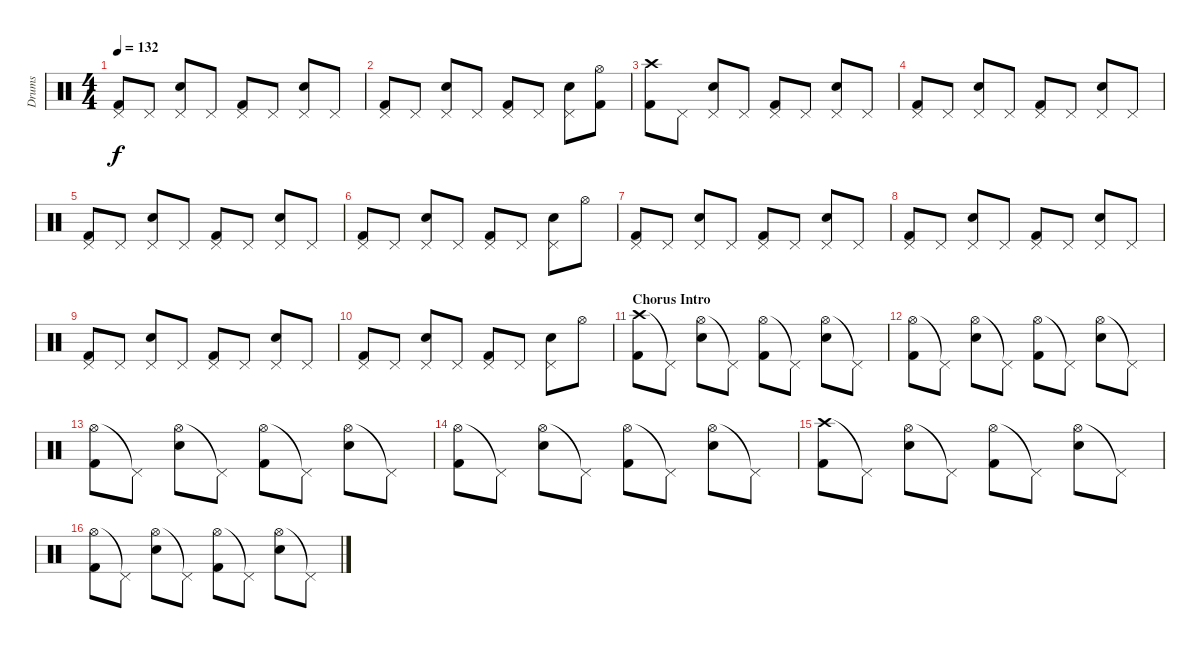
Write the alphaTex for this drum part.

\track ("Drums" "Drums") {instrument percussion}
\staff {score}
\articulation defaults
\ts (4 4)
\tempo 132
\clef neutral
\ks c
("Pedal Hi-Hat (hit)" "Kick (hit) 2").8{dy f} "Pedal Hi-Hat (hit)".8 ("Pedal Hi-Hat (hit)" "Snare (hit) 2").8 "Pedal Hi-Hat (hit)".8 ("Pedal Hi-Hat (hit)" "Kick (hit) 2").8 "Pedal Hi-Hat (hit)".8 ("Pedal Hi-Hat (hit)" "Snare (hit) 2").8 "Pedal Hi-Hat (hit)".8 |
("Pedal Hi-Hat (hit)" "Kick (hit) 2").8 "Pedal Hi-Hat (hit)".8 ("Pedal Hi-Hat (hit)" "Snare (hit) 2").8 "Pedal Hi-Hat (hit)".8 ("Pedal Hi-Hat (hit)" "Kick (hit) 2").8 "Pedal Hi-Hat (hit)".8 ("Pedal Hi-Hat (hit)" "Snare (hit) 2").8 ("Hi-Hat (open)" "Kick (hit) 2").8 |
("Crash high (hit)" "Kick (hit) 2").8 "Pedal Hi-Hat (hit)".8 ("Pedal Hi-Hat (hit)" "Snare (hit) 2").8 "Pedal Hi-Hat (hit)".8 ("Pedal Hi-Hat (hit)" "Kick (hit) 2").8 "Pedal Hi-Hat (hit)".8 ("Pedal Hi-Hat (hit)" "Snare (hit) 2").8 "Pedal Hi-Hat (hit)".8 |
("Pedal Hi-Hat (hit)" "Kick (hit) 2").8 "Pedal Hi-Hat (hit)".8 ("Pedal Hi-Hat (hit)" "Snare (hit) 2").8 "Pedal Hi-Hat (hit)".8 ("Pedal Hi-Hat (hit)" "Kick (hit) 2").8 "Pedal Hi-Hat (hit)".8 ("Pedal Hi-Hat (hit)" "Snare (hit) 2").8 "Pedal Hi-Hat (hit)".8 |
("Pedal Hi-Hat (hit)" "Kick (hit) 2").8 "Pedal Hi-Hat (hit)".8 ("Pedal Hi-Hat (hit)" "Snare (hit) 2").8 "Pedal Hi-Hat (hit)".8 ("Pedal Hi-Hat (hit)" "Kick (hit) 2").8 "Pedal Hi-Hat (hit)".8 ("Pedal Hi-Hat (hit)" "Snare (hit) 2").8 "Pedal Hi-Hat (hit)".8 |
("Pedal Hi-Hat (hit)" "Kick (hit) 2").8 "Pedal Hi-Hat (hit)".8 ("Pedal Hi-Hat (hit)" "Snare (hit) 2").8 "Pedal Hi-Hat (hit)".8 ("Pedal Hi-Hat (hit)" "Kick (hit) 2").8 "Pedal Hi-Hat (hit)".8 ("Pedal Hi-Hat (hit)" "Snare (hit) 2").8 "Hi-Hat (open)".8 |
("Pedal Hi-Hat (hit)" "Kick (hit) 2").8 "Pedal Hi-Hat (hit)".8 ("Pedal Hi-Hat (hit)" "Snare (hit) 2").8 "Pedal Hi-Hat (hit)".8 ("Pedal Hi-Hat (hit)" "Kick (hit) 2").8 "Pedal Hi-Hat (hit)".8 ("Pedal Hi-Hat (hit)" "Snare (hit) 2").8 "Pedal Hi-Hat (hit)".8 |
("Pedal Hi-Hat (hit)" "Kick (hit) 2").8 "Pedal Hi-Hat (hit)".8 ("Pedal Hi-Hat (hit)" "Snare (hit) 2").8 "Pedal Hi-Hat (hit)".8 ("Pedal Hi-Hat (hit)" "Kick (hit) 2").8 "Pedal Hi-Hat (hit)".8 ("Pedal Hi-Hat (hit)" "Snare (hit) 2").8 "Pedal Hi-Hat (hit)".8 |
("Pedal Hi-Hat (hit)" "Kick (hit) 2").8 "Pedal Hi-Hat (hit)".8 ("Pedal Hi-Hat (hit)" "Snare (hit) 2").8 "Pedal Hi-Hat (hit)".8 ("Pedal Hi-Hat (hit)" "Kick (hit) 2").8 "Pedal Hi-Hat (hit)".8 ("Pedal Hi-Hat (hit)" "Snare (hit) 2").8 "Pedal Hi-Hat (hit)".8 |
("Pedal Hi-Hat (hit)" "Kick (hit) 2").8 "Pedal Hi-Hat (hit)".8 ("Pedal Hi-Hat (hit)" "Snare (hit) 2").8 "Pedal Hi-Hat (hit)".8 ("Pedal Hi-Hat (hit)" "Kick (hit) 2").8 "Pedal Hi-Hat (hit)".8 ("Pedal Hi-Hat (hit)" "Snare (hit) 2").8 "Hi-Hat (open)".8 |
\section ("" "Chorus Intro")
("Crash high (hit)" "Kick (hit) 2").8 "Pedal Hi-Hat (hit)"{t}.8 ("Hi-Hat (open)" "Snare (hit) 2").8 "Pedal Hi-Hat (hit)"{t}.8 ("Hi-Hat (open)" "Kick (hit) 2").8 "Pedal Hi-Hat (hit)"{t}.8 ("Hi-Hat (open)" "Snare (hit) 2").8 "Pedal Hi-Hat (hit)"{t}.8 |
("Hi-Hat (open)" "Kick (hit) 2").8 "Pedal Hi-Hat (hit)"{t}.8 ("Hi-Hat (open)" "Snare (hit) 2").8 "Pedal Hi-Hat (hit)"{t}.8 ("Hi-Hat (open)" "Kick (hit) 2").8 "Pedal Hi-Hat (hit)"{t}.8 ("Hi-Hat (open)" "Snare (hit) 2").8 "Pedal Hi-Hat (hit)"{t}.8 |
("Hi-Hat (open)" "Kick (hit) 2").8 "Pedal Hi-Hat (hit)"{t}.8 ("Hi-Hat (open)" "Snare (hit) 2").8 "Pedal Hi-Hat (hit)"{t}.8 ("Hi-Hat (open)" "Kick (hit) 2").8 "Pedal Hi-Hat (hit)"{t}.8 ("Hi-Hat (open)" "Snare (hit) 2").8 "Pedal Hi-Hat (hit)"{t}.8 |
("Hi-Hat (open)" "Kick (hit) 2").8 "Pedal Hi-Hat (hit)"{t}.8 ("Hi-Hat (open)" "Snare (hit) 2").8 "Pedal Hi-Hat (hit)"{t}.8 ("Hi-Hat (open)" "Kick (hit) 2").8 "Pedal Hi-Hat (hit)"{t}.8 ("Hi-Hat (open)" "Snare (hit) 2").8 "Pedal Hi-Hat (hit)"{t}.8 |
("Crash high (hit)" "Kick (hit) 2").8 "Pedal Hi-Hat (hit)"{t}.8 ("Hi-Hat (open)" "Snare (hit) 2").8 "Pedal Hi-Hat (hit)"{t}.8 ("Hi-Hat (open)" "Kick (hit) 2").8 "Pedal Hi-Hat (hit)"{t}.8 ("Hi-Hat (open)" "Snare (hit) 2").8 "Pedal Hi-Hat (hit)"{t}.8 |
("Hi-Hat (open)" "Kick (hit) 2").8 "Pedal Hi-Hat (hit)"{t}.8 ("Hi-Hat (open)" "Snare (hit) 2").8 "Pedal Hi-Hat (hit)"{t}.8 ("Hi-Hat (open)" "Kick (hit) 2").8 "Pedal Hi-Hat (hit)"{t}.8 ("Hi-Hat (open)" "Snare (hit) 2").8 "Pedal Hi-Hat (hit)"{t}.8
